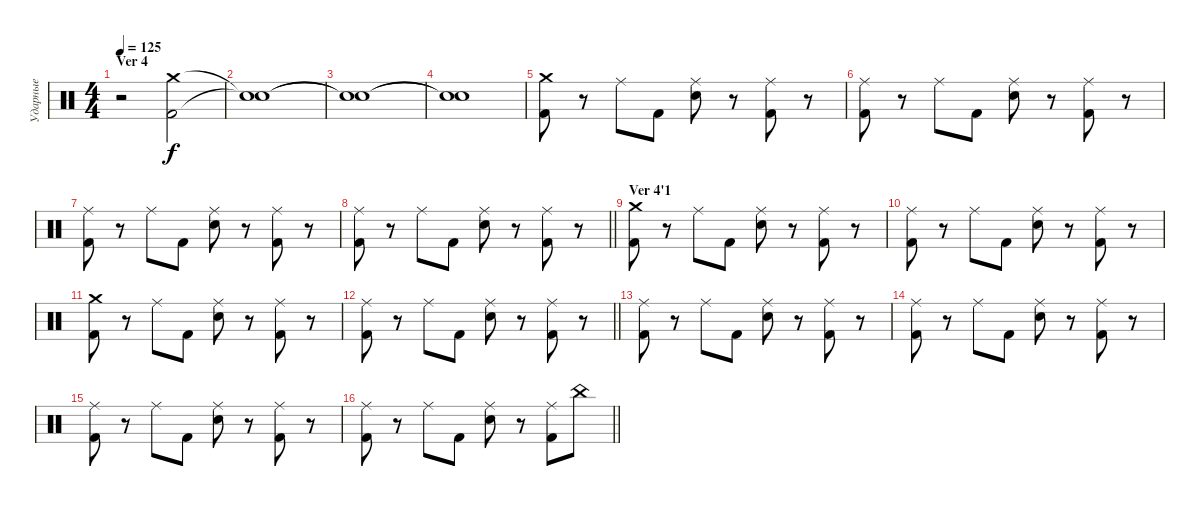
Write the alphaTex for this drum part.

\track ("Ударные" "Ударные") {instrument percussion}
\staff {score}
\articulation defaults
\ts (4 4)
\section ("" "Ver 4")
\tempo 125
\clef neutral
\ks c
r.2{dy f} ("Crash medium (hit)" "Kick (hit) 2").2 |
("Snare (hit)"{t} "Snare (hit)"{t}).1 |
("Snare (hit)"{t} "Snare (hit)"{t}).1 |
("Snare (hit)"{t} "Snare (hit)"{t}).1 |
("Crash medium (hit)" "Kick (hit) 2").8 r.8 "Ride (middle)".8 "Kick (hit) 2".8 ("Ride (middle)" "Electric Snare (hit)").8 r.8 ("Ride (middle)" "Kick (hit) 2").8 r.8 |
("Ride (middle)" "Kick (hit) 2").8 r.8 "Ride (middle)".8 "Kick (hit) 2".8 ("Ride (middle)" "Electric Snare (hit)").8 r.8 ("Ride (middle)" "Kick (hit) 2").8 r.8 |
("Ride (middle)" "Kick (hit) 2").8 r.8 "Ride (middle)".8 "Kick (hit) 2".8 ("Ride (middle)" "Electric Snare (hit)").8 r.8 ("Ride (middle)" "Kick (hit) 2").8 r.8 |
\barLineRight lightlight
("Ride (middle)" "Kick (hit) 2").8 r.8 "Ride (middle)".8 "Kick (hit) 2".8 ("Ride (middle)" "Electric Snare (hit)").8 r.8 ("Ride (middle)" "Kick (hit) 2").8 r.8 |
\section ("" "Ver 4'1")
("Crash medium (hit)" "Kick (hit) 2").8 r.8 "Ride (middle)".8 "Kick (hit) 2".8 ("Ride (middle)" "Electric Snare (hit)").8 r.8 ("Ride (middle)" "Kick (hit) 2").8 r.8 |
("Ride (middle)" "Kick (hit) 2").8 r.8 "Ride (middle)".8 "Kick (hit) 2".8 ("Ride (middle)" "Electric Snare (hit)").8 r.8 ("Ride (middle)" "Kick (hit) 2").8 r.8 |
("Crash medium (hit)" "Kick (hit) 2").8 r.8 "Ride (middle)".8 "Kick (hit) 2".8 ("Ride (middle)" "Electric Snare (hit)").8 r.8 ("Ride (middle)" "Kick (hit) 2").8 r.8 |
\barLineRight lightlight
("Ride (middle)" "Kick (hit) 2").8 r.8 "Ride (middle)".8 "Kick (hit) 2".8 ("Ride (middle)" "Electric Snare (hit)").8 r.8 ("Ride (middle)" "Kick (hit) 2").8 r.8 |
("Ride (middle)" "Kick (hit) 2").8 r.8 "Ride (middle)".8 "Kick (hit) 2".8 ("Ride (middle)" "Electric Snare (hit)").8 r.8 ("Ride (middle)" "Kick (hit) 2").8 r.8 |
("Ride (middle)" "Kick (hit) 2").8 r.8 "Ride (middle)".8 "Kick (hit) 2".8 ("Ride (middle)" "Electric Snare (hit)").8 r.8 ("Ride (middle)" "Kick (hit) 2").8 r.8 |
("Ride (middle)" "Kick (hit) 2").8 r.8 "Ride (middle)".8 "Kick (hit) 2".8 ("Ride (middle)" "Electric Snare (hit)").8 r.8 ("Ride (middle)" "Kick (hit) 2").8 r.8 |
\barLineRight lightlight
("Ride (middle)" "Kick (hit) 2").8 r.8 "Ride (middle)".8 "Kick (hit) 2".8 ("Ride (middle)" "Electric Snare (hit)").8 r.8 ("Ride (middle)" "Kick (hit) 2").8 "China (hit)".8
